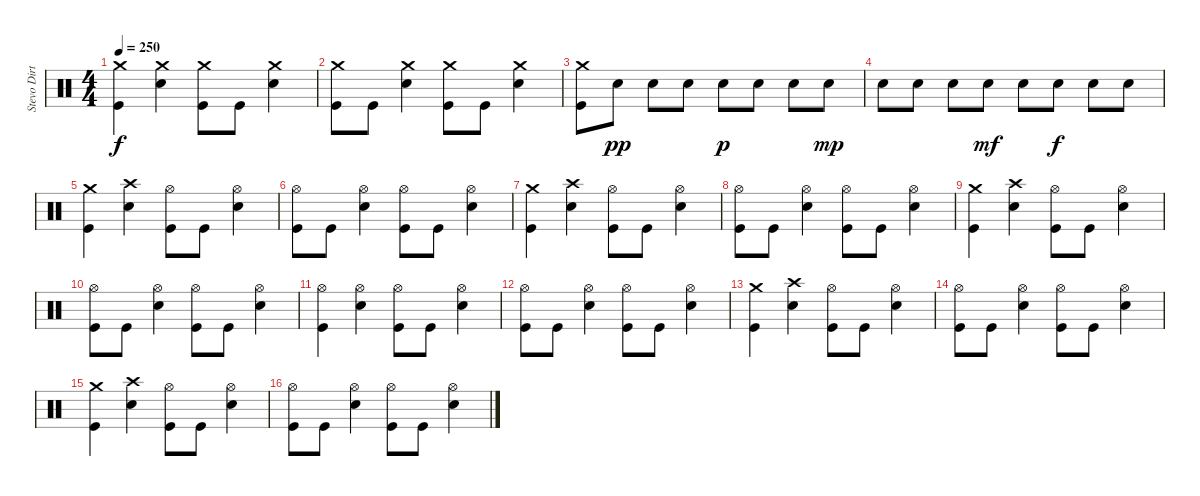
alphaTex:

\track ("Stevo Dirty Poo" "Stevo Dirt") {instrument percussion}
\staff {score}
\articulation defaults
\ts (4 4)
\tempo 250
\clef neutral
\ks c
("Crash medium (hit)" "Kick (hit)").4{dy f} ("Crash medium (hit)" "Snare (hit) 2").4 ("Crash medium (hit)" "Kick (hit)").8 "Kick (hit)".8 ("Crash medium (hit)" "Snare (hit) 2").4 |
("Crash medium (hit)" "Kick (hit)").8 "Kick (hit)".8 ("Crash medium (hit)" "Snare (hit) 2").4 ("Crash medium (hit)" "Kick (hit)").8 "Kick (hit)".8 ("Crash medium (hit)" "Snare (hit) 2").4 |
("Crash medium (hit)" "Kick (hit)").8 "Snare (hit) 2".8{dy pp} "Snare (hit) 2".8 "Snare (hit) 2".8 "Snare (hit) 2".8{dy p} "Snare (hit) 2".8 "Snare (hit) 2".8 "Snare (hit) 2".8{dy mp} |
"Snare (hit) 2".8 "Snare (hit) 2".8 "Snare (hit) 2".8 "Snare (hit) 2".8{dy mf} "Snare (hit) 2".8 "Snare (hit) 2".8{dy f} "Snare (hit) 2".8 "Snare (hit) 2".8 |
("Crash medium (hit)" "Kick (hit)").4 ("Crash high (hit)" "Snare (hit) 2").4 ("Hi-Hat (open)" "Kick (hit)").8 "Kick (hit)".8 ("Hi-Hat (open)" "Snare (hit) 2").4 |
("Hi-Hat (open)" "Kick (hit)").8 "Kick (hit)".8 ("Hi-Hat (open)" "Snare (hit) 2").4 ("Hi-Hat (open)" "Kick (hit)").8 "Kick (hit)".8 ("Hi-Hat (open)" "Snare (hit) 2").4 |
("Crash medium (hit)" "Kick (hit)").4 ("Crash high (hit)" "Snare (hit) 2").4 ("Hi-Hat (open)" "Kick (hit)").8 "Kick (hit)".8 ("Hi-Hat (open)" "Snare (hit) 2").4 |
("Hi-Hat (open)" "Kick (hit)").8 "Kick (hit)".8 ("Hi-Hat (open)" "Snare (hit) 2").4 ("Hi-Hat (open)" "Kick (hit)").8 "Kick (hit)".8 ("Hi-Hat (open)" "Snare (hit) 2").4 |
("Crash medium (hit)" "Kick (hit)").4 ("Crash high (hit)" "Snare (hit) 2").4 ("Hi-Hat (open)" "Kick (hit)").8 "Kick (hit)".8 ("Hi-Hat (open)" "Snare (hit) 2").4 |
("Hi-Hat (open)" "Kick (hit)").8 "Kick (hit)".8 ("Hi-Hat (open)" "Snare (hit) 2").4 ("Hi-Hat (open)" "Kick (hit)").8 "Kick (hit)".8 ("Hi-Hat (open)" "Snare (hit) 2").4 |
("Hi-Hat (open)" "Kick (hit)").4 ("Hi-Hat (open)" "Snare (hit) 2").4 ("Hi-Hat (open)" "Kick (hit)").8 "Kick (hit)".8 ("Hi-Hat (open)" "Snare (hit) 2").4 |
("Hi-Hat (open)" "Kick (hit)").8 "Kick (hit)".8 ("Hi-Hat (open)" "Snare (hit) 2").4 ("Hi-Hat (open)" "Kick (hit)").8 "Kick (hit)".8 ("Hi-Hat (open)" "Snare (hit) 2").4 |
("Crash medium (hit)" "Kick (hit)").4 ("Crash high (hit)" "Snare (hit) 2").4 ("Hi-Hat (open)" "Kick (hit)").8 "Kick (hit)".8 ("Hi-Hat (open)" "Snare (hit) 2").4 |
("Hi-Hat (open)" "Kick (hit)").8 "Kick (hit)".8 ("Hi-Hat (open)" "Snare (hit) 2").4 ("Hi-Hat (open)" "Kick (hit)").8 "Kick (hit)".8 ("Hi-Hat (open)" "Snare (hit) 2").4 |
("Crash medium (hit)" "Kick (hit)").4 ("Crash high (hit)" "Snare (hit) 2").4 ("Hi-Hat (open)" "Kick (hit)").8 "Kick (hit)".8 ("Hi-Hat (open)" "Snare (hit) 2").4 |
("Hi-Hat (open)" "Kick (hit)").8 "Kick (hit)".8 ("Hi-Hat (open)" "Snare (hit) 2").4 ("Hi-Hat (open)" "Kick (hit)").8 "Kick (hit)".8 ("Hi-Hat (open)" "Snare (hit) 2").4
